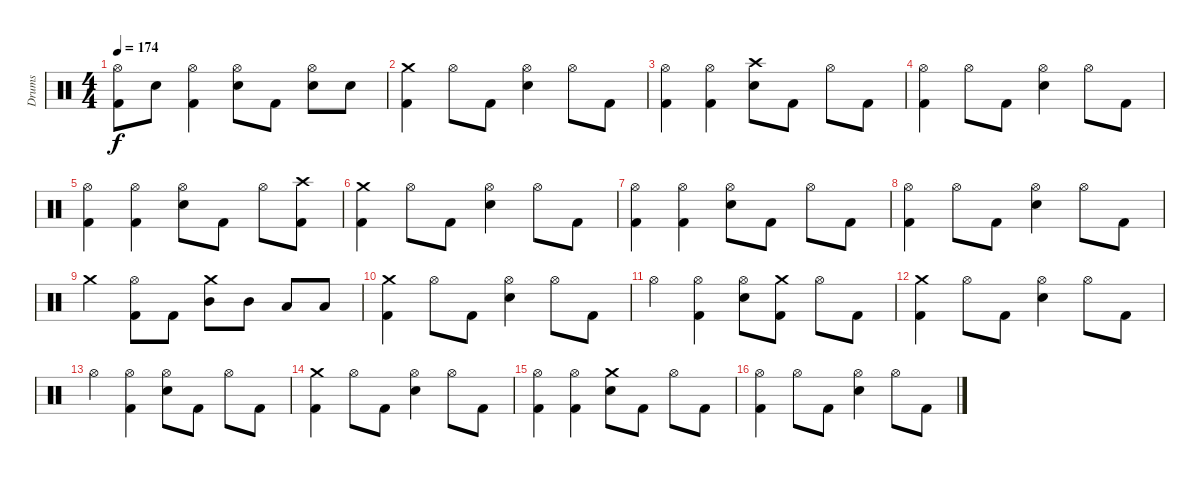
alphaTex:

\track ("Drums" "Drums") {instrument percussion}
\staff {score}
\articulation defaults
\ts (4 4)
\tempo 174
\clef neutral
\ks c
("Hi-Hat (open)" "Kick (hit) 2").8{dy f} "Snare (hit) 2".8 ("Hi-Hat (open)" "Kick (hit) 2").4 ("Hi-Hat (open)" "Snare (hit) 2").8 "Kick (hit) 2".8 ("Hi-Hat (open)" "Snare (hit) 2").8 "Snare (hit) 2".8 |
("Crash medium (hit)" "Kick (hit) 2").4 "Hi-Hat (open)".8 "Kick (hit) 2".8 ("Hi-Hat (open)" "Snare (hit) 2").4 "Hi-Hat (open)".8 "Kick (hit) 2".8 |
("Hi-Hat (open)" "Kick (hit) 2").4 ("Hi-Hat (open)" "Kick (hit) 2").4 ("Crash high (hit)" "Snare (hit) 2").8 "Kick (hit) 2".8 "Hi-Hat (open)".8 "Kick (hit) 2".8 |
("Hi-Hat (open)" "Kick (hit) 2").4 "Hi-Hat (open)".8 "Kick (hit) 2".8 ("Hi-Hat (open)" "Snare (hit) 2").4 "Hi-Hat (open)".8 "Kick (hit) 2".8 |
("Hi-Hat (open)" "Kick (hit) 2").4 ("Hi-Hat (open)" "Kick (hit) 2").4 ("Hi-Hat (open)" "Snare (hit) 2").8 "Kick (hit) 2".8 "Hi-Hat (open)".8 ("Crash high (hit)" "Kick (hit) 2").8 |
("Crash medium (hit)" "Kick (hit) 2").4 "Hi-Hat (open)".8 "Kick (hit) 2".8 ("Hi-Hat (open)" "Snare (hit) 2").4 "Hi-Hat (open)".8 "Kick (hit) 2".8 |
("Hi-Hat (open)" "Kick (hit) 2").4 ("Hi-Hat (open)" "Kick (hit) 2").4 ("Hi-Hat (open)" "Snare (hit) 2").8 "Kick (hit) 2".8 "Hi-Hat (open)".8 "Kick (hit) 2".8 |
("Hi-Hat (open)" "Kick (hit) 2").4 "Hi-Hat (open)".8 "Kick (hit) 2".8 ("Hi-Hat (open)" "Snare (hit) 2").4 "Hi-Hat (open)".8 "Kick (hit) 2".8 |
"Crash medium (hit)".4 ("Hi-Hat (open)" "Kick (hit) 2").8 "Kick (hit) 2".8 ("Crash medium (hit)" "Mid Tom (hit)").8 "Mid Tom (hit)".8 "Low Tom (hit)".8 "Low Floor Tom (hit)".8 |
("Crash medium (hit)" "Kick (hit) 2").4 "Hi-Hat (open)".8 "Kick (hit) 2".8 ("Hi-Hat (open)" "Snare (hit) 2").4 "Hi-Hat (open)".8 "Kick (hit) 2".8 |
"Hi-Hat (open)".4 ("Hi-Hat (open)" "Kick (hit) 2").4 ("Hi-Hat (open)" "Snare (hit) 2").8 ("Crash medium (hit)" "Kick (hit) 2").8 "Hi-Hat (open)".8 "Kick (hit) 2".8 |
("Crash medium (hit)" "Kick (hit) 2").4 "Hi-Hat (open)".8 "Kick (hit) 2".8 ("Hi-Hat (open)" "Snare (hit) 2").4 "Hi-Hat (open)".8 "Kick (hit) 2".8 |
"Hi-Hat (open)".4 ("Hi-Hat (open)" "Kick (hit) 2").4 ("Hi-Hat (open)" "Snare (hit) 2").8 "Kick (hit) 2".8 "Hi-Hat (open)".8 "Kick (hit) 2".8 |
("Crash medium (hit)" "Kick (hit) 2").4 "Hi-Hat (open)".8 "Kick (hit) 2".8 ("Hi-Hat (open)" "Snare (hit) 2").4 "Hi-Hat (open)".8 "Kick (hit) 2".8 |
("Hi-Hat (open)" "Kick (hit) 2").4 ("Hi-Hat (open)" "Kick (hit) 2").4 ("Crash medium (hit)" "Snare (hit) 2").8 "Kick (hit) 2".8 "Hi-Hat (open)".8 "Kick (hit) 2".8 |
("Hi-Hat (open)" "Kick (hit) 2").4 "Hi-Hat (open)".8 "Kick (hit) 2".8 ("Hi-Hat (open)" "Snare (hit) 2").4 "Hi-Hat (open)".8 "Kick (hit) 2".8
